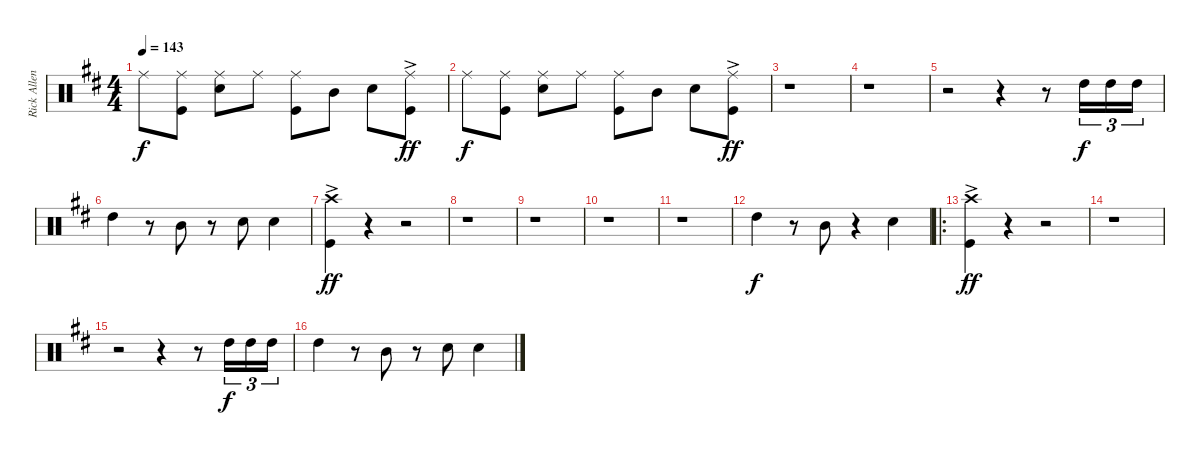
\track ("Rick Allen" "Rick Allen") {instrument percussion}
\staff {score}
\articulation defaults
\ts (4 4)
\tempo 143
\clef neutral
\ks d "Ride (middle)".8{dy f}
("Ride (middle)" "Kick (hit)").8 ("Ride (middle)" "Snare (hit) 2").8 "Ride (middle)".8 ("Ride (middle)" "Kick (hit)").8 "Mid Tom (hit)".8 "Snare (hit) 2".8 ("Ride (middle)" "Kick (hit)"{ac}).8{dy ff} |
"Ride (middle)".8{dy f} ("Ride (middle)" "Kick (hit)").8 ("Ride (middle)" "Snare (hit) 2").8 "Ride (middle)".8 ("Ride (middle)" "Kick (hit)").8 "Mid Tom (hit)".8 "Snare (hit) 2".8 ("Ride (middle)" "Kick (hit)"{ac}).8{dy ff} |
r.1 |
r.1 |
r.2 r.4 r.8 "High Tom (hit)".16{tu (3 2) dy f} "High Tom (hit)".16{tu (3 2)} "High Tom (hit)".16{tu (3 2)} |
"High Tom (hit)".4 r.8 "Mid Tom (hit)".8 r.8 "Snare (hit) 2".8 "Snare (hit) 2".4 |
("Crash high (hit)"{ac} "Kick (hit)").4{dy ff} r.4 r.2 |
r.1 |
r.1 |
r.1 |
r.1 |
"High Tom (hit)".4{dy f} r.8 "Mid Tom (hit)".8 r.4 "Snare (hit) 2".4 |
\ro
("Crash high (hit)"{ac} "Kick (hit)").4{dy ff} r.4 r.2 |
r.1 |
r.2 r.4 r.8 "High Tom (hit)".16{tu (3 2) dy f} "High Tom (hit)".16{tu (3 2)} "High Tom (hit)".16{tu (3 2)} |
"High Tom (hit)".4 r.8 "Mid Tom (hit)".8 r.8 "Snare (hit) 2".8 "Snare (hit) 2".4
